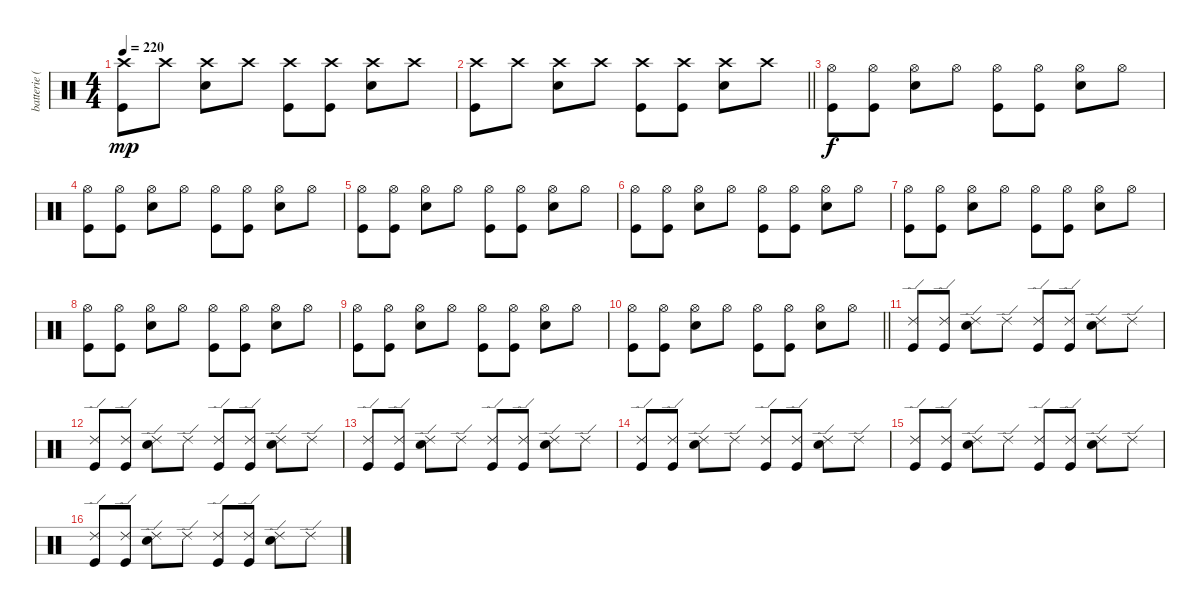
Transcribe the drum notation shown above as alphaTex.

\track ("batterie ( Guillaume ) " "batterie (") {instrument percussion}
\staff {score}
\articulation defaults
\ts (4 4)
\tempo 220
\clef neutral
\ks c
("Crash high (hit)" "Kick (hit)").8{dy mp} "Crash high (hit)".8 ("Crash high (hit)" "Snare (hit) 2").8 "Crash high (hit)".8 ("Crash high (hit)" "Kick (hit)").8 ("Crash high (hit)" "Kick (hit)").8 ("Crash high (hit)" "Snare (hit) 2").8 "Crash high (hit)".8 |
\barLineRight lightlight
("Crash high (hit)" "Kick (hit)").8 "Crash high (hit)".8 ("Crash high (hit)" "Snare (hit) 2").8 "Crash high (hit)".8 ("Crash high (hit)" "Kick (hit)").8 ("Crash high (hit)" "Kick (hit)").8 ("Crash high (hit)" "Snare (hit) 2").8 "Crash high (hit)".8 |
("Hi-Hat (open)" "Kick (hit)").8{dy f} ("Hi-Hat (open)" "Kick (hit)").8 ("Hi-Hat (open)" "Snare (hit) 2").8 "Hi-Hat (open)".8 ("Hi-Hat (open)" "Kick (hit)").8 ("Hi-Hat (open)" "Kick (hit)").8 ("Hi-Hat (open)" "Snare (hit) 2").8 "Hi-Hat (open)".8 |
("Hi-Hat (open)" "Kick (hit)").8 ("Hi-Hat (open)" "Kick (hit)").8 ("Hi-Hat (open)" "Snare (hit) 2").8 "Hi-Hat (open)".8 ("Hi-Hat (open)" "Kick (hit)").8 ("Hi-Hat (open)" "Kick (hit)").8 ("Hi-Hat (open)" "Snare (hit) 2").8 "Hi-Hat (open)".8 |
("Hi-Hat (open)" "Kick (hit)").8 ("Hi-Hat (open)" "Kick (hit)").8 ("Hi-Hat (open)" "Snare (hit) 2").8 "Hi-Hat (open)".8 ("Hi-Hat (open)" "Kick (hit)").8 ("Hi-Hat (open)" "Kick (hit)").8 ("Hi-Hat (open)" "Snare (hit) 2").8 "Hi-Hat (open)".8 |
("Hi-Hat (open)" "Kick (hit)").8 ("Hi-Hat (open)" "Kick (hit)").8 ("Hi-Hat (open)" "Snare (hit) 2").8 "Hi-Hat (open)".8 ("Hi-Hat (open)" "Kick (hit)").8 ("Hi-Hat (open)" "Kick (hit)").8 ("Hi-Hat (open)" "Snare (hit) 2").8 "Hi-Hat (open)".8 |
("Hi-Hat (open)" "Kick (hit)").8 ("Hi-Hat (open)" "Kick (hit)").8 ("Hi-Hat (open)" "Snare (hit) 2").8 "Hi-Hat (open)".8 ("Hi-Hat (open)" "Kick (hit)").8 ("Hi-Hat (open)" "Kick (hit)").8 ("Hi-Hat (open)" "Snare (hit) 2").8 "Hi-Hat (open)".8 |
("Hi-Hat (open)" "Kick (hit)").8 ("Hi-Hat (open)" "Kick (hit)").8 ("Hi-Hat (open)" "Snare (hit) 2").8 "Hi-Hat (open)".8 ("Hi-Hat (open)" "Kick (hit)").8 ("Hi-Hat (open)" "Kick (hit)").8 ("Hi-Hat (open)" "Snare (hit) 2").8 "Hi-Hat (open)".8 |
("Hi-Hat (open)" "Kick (hit)").8 ("Hi-Hat (open)" "Kick (hit)").8 ("Hi-Hat (open)" "Snare (hit) 2").8 "Hi-Hat (open)".8 ("Hi-Hat (open)" "Kick (hit)").8 ("Hi-Hat (open)" "Kick (hit)").8 ("Hi-Hat (open)" "Snare (hit) 2").8 "Hi-Hat (open)".8 |
\barLineRight lightlight
("Hi-Hat (open)" "Kick (hit)").8 ("Hi-Hat (open)" "Kick (hit)").8 ("Hi-Hat (open)" "Snare (hit) 2").8 "Hi-Hat (open)".8 ("Hi-Hat (open)" "Kick (hit)").8 ("Hi-Hat (open)" "Kick (hit)").8 ("Hi-Hat (open)" "Snare (hit) 2").8 "Hi-Hat (open)".8 |
("Ride (edge) 2" "Kick (hit)").8 ("Ride (edge) 2" "Kick (hit)").8 ("Ride (edge) 2" "Snare (hit) 2").8 "Ride (edge) 2".8 ("Ride (edge) 2" "Kick (hit)").8 ("Ride (edge) 2" "Kick (hit)").8 ("Ride (edge) 2" "Snare (hit) 2").8 "Ride (edge) 2".8 |
("Ride (edge) 2" "Kick (hit)").8 ("Ride (edge) 2" "Kick (hit)").8 ("Ride (edge) 2" "Snare (hit) 2").8 "Ride (edge) 2".8 ("Ride (edge) 2" "Kick (hit)").8 ("Ride (edge) 2" "Kick (hit)").8 ("Ride (edge) 2" "Snare (hit) 2").8 "Ride (edge) 2".8 |
("Ride (edge) 2" "Kick (hit)").8 ("Ride (edge) 2" "Kick (hit)").8 ("Ride (edge) 2" "Snare (hit) 2").8 "Ride (edge) 2".8 ("Ride (edge) 2" "Kick (hit)").8 ("Ride (edge) 2" "Kick (hit)").8 ("Ride (edge) 2" "Snare (hit) 2").8 "Ride (edge) 2".8 |
("Ride (edge) 2" "Kick (hit)").8 ("Ride (edge) 2" "Kick (hit)").8 ("Ride (edge) 2" "Snare (hit) 2").8 "Ride (edge) 2".8 ("Ride (edge) 2" "Kick (hit)").8 ("Ride (edge) 2" "Kick (hit)").8 ("Ride (edge) 2" "Snare (hit) 2").8 "Ride (edge) 2".8 |
("Ride (edge) 2" "Kick (hit)").8 ("Ride (edge) 2" "Kick (hit)").8 ("Ride (edge) 2" "Snare (hit) 2").8 "Ride (edge) 2".8 ("Ride (edge) 2" "Kick (hit)").8 ("Ride (edge) 2" "Kick (hit)").8 ("Ride (edge) 2" "Snare (hit) 2").8 "Ride (edge) 2".8 |
("Ride (edge) 2" "Kick (hit)").8 ("Ride (edge) 2" "Kick (hit)").8 ("Ride (edge) 2" "Snare (hit) 2").8 "Ride (edge) 2".8 ("Ride (edge) 2" "Kick (hit)").8 ("Ride (edge) 2" "Kick (hit)").8 ("Ride (edge) 2" "Snare (hit) 2").8 "Ride (edge) 2".8
